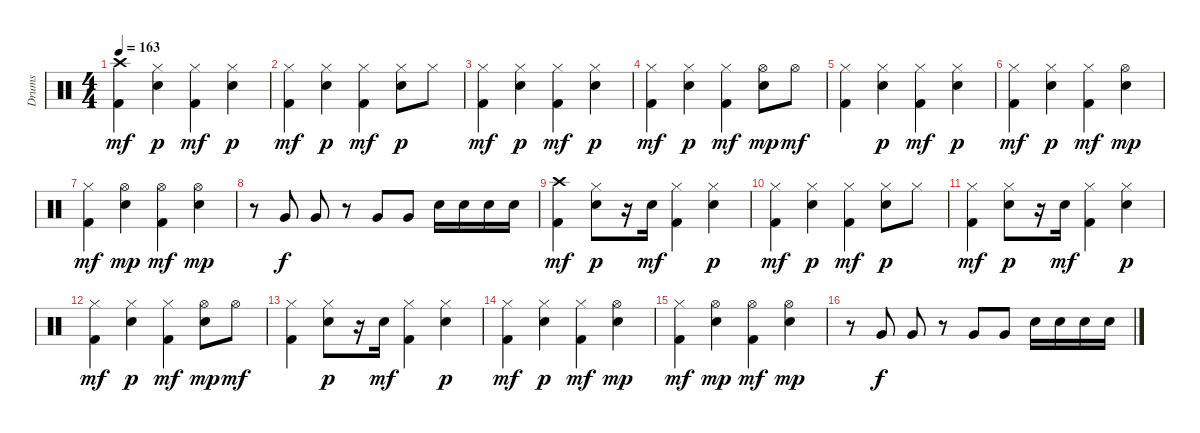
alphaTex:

\track ("Drums" "Drums") {instrument percussion}
\staff {score}
\articulation defaults
\ts (4 4)
\tempo 163
\clef neutral
\ks c
("Crash high (hit)" "Kick (hit) 2").4{dy mf} ("Hi-Hat (closed)" "Snare (hit) 2").4{dy p} ("Hi-Hat (closed)" "Kick (hit) 2").4{dy mf} ("Hi-Hat (closed)" "Snare (hit) 2").4{dy p} |
("Hi-Hat (closed)" "Kick (hit) 2").4{dy mf} ("Hi-Hat (closed)" "Snare (hit) 2").4{dy p} ("Hi-Hat (closed)" "Kick (hit) 2").4{dy mf} ("Hi-Hat (closed)" "Snare (hit) 2").8{dy p} "Hi-Hat (closed)".8 |
("Hi-Hat (closed)" "Kick (hit) 2").4{dy mf} ("Hi-Hat (closed)" "Snare (hit) 2").4{dy p} ("Hi-Hat (closed)" "Kick (hit) 2").4{dy mf} ("Hi-Hat (closed)" "Snare (hit) 2").4{dy p} |
("Hi-Hat (closed)" "Kick (hit) 2").4{dy mf} ("Hi-Hat (closed)" "Snare (hit) 2").4{dy p} ("Hi-Hat (closed)" "Kick (hit) 2").4{dy mf} ("Hi-Hat (open)" "Snare (hit) 2").8{dy mp} "Hi-Hat (open)".8{dy mf} |
("Hi-Hat (closed)" "Kick (hit) 2").4 ("Hi-Hat (closed)" "Snare (hit) 2").4{dy p} ("Hi-Hat (closed)" "Kick (hit) 2").4{dy mf} ("Hi-Hat (closed)" "Snare (hit) 2").4{dy p} |
("Hi-Hat (closed)" "Kick (hit) 2").4{dy mf} ("Hi-Hat (closed)" "Snare (hit) 2").4{dy p} ("Hi-Hat (closed)" "Kick (hit) 2").4{dy mf} ("Hi-Hat (open)" "Snare (hit) 2").4{dy mp} |
("Hi-Hat (closed)" "Kick (hit) 2").4{dy mf} ("Hi-Hat (open)" "Snare (hit) 2").4{dy mp} ("Hi-Hat (open)" "Kick (hit) 2").4{dy mf} ("Hi-Hat (open)" "Snare (hit) 2").4{dy mp} |
r.8 "Very Low Tom (hit)".8{dy f} "Very Low Tom (hit)".8 r.8 "Very Low Tom (hit)".8 "Very Low Tom (hit)".8 "Snare (hit) 2".16 "Snare (hit) 2".16 "Snare (hit) 2".16 "Snare (hit) 2".16 |
("Crash high (hit)" "Kick (hit) 2").4{dy mf} ("Hi-Hat (closed)" "Snare (hit) 2").8{dy p} r.16 "Snare (hit) 2".16{dy mf} ("Hi-Hat (closed)" "Kick (hit) 2").4 ("Hi-Hat (closed)" "Snare (hit) 2").4{dy p} |
("Hi-Hat (closed)" "Kick (hit) 2").4{dy mf} ("Hi-Hat (closed)" "Snare (hit) 2").4{dy p} ("Hi-Hat (closed)" "Kick (hit) 2").4{dy mf} ("Hi-Hat (closed)" "Snare (hit) 2").8{dy p} "Hi-Hat (closed)".8 |
("Hi-Hat (closed)" "Kick (hit) 2").4{dy mf} ("Hi-Hat (closed)" "Snare (hit) 2").8{dy p} r.16 "Snare (hit) 2".16{dy mf} ("Hi-Hat (closed)" "Kick (hit) 2").4 ("Hi-Hat (closed)" "Snare (hit) 2").4{dy p} |
("Hi-Hat (closed)" "Kick (hit) 2").4{dy mf} ("Hi-Hat (closed)" "Snare (hit) 2").4{dy p} ("Hi-Hat (closed)" "Kick (hit) 2").4{dy mf} ("Hi-Hat (open)" "Snare (hit) 2").8{dy mp} "Hi-Hat (open)".8{dy mf} |
("Hi-Hat (closed)" "Kick (hit) 2").4 ("Hi-Hat (closed)" "Snare (hit) 2").8{dy p} r.16 "Snare (hit) 2".16{dy mf} ("Hi-Hat (closed)" "Kick (hit) 2").4 ("Hi-Hat (closed)" "Snare (hit) 2").4{dy p} |
("Hi-Hat (closed)" "Kick (hit) 2").4{dy mf} ("Hi-Hat (closed)" "Snare (hit) 2").4{dy p} ("Hi-Hat (closed)" "Kick (hit) 2").4{dy mf} ("Hi-Hat (open)" "Snare (hit) 2").4{dy mp} |
("Hi-Hat (closed)" "Kick (hit) 2").4{dy mf} ("Hi-Hat (open)" "Snare (hit) 2").4{dy mp} ("Hi-Hat (open)" "Kick (hit) 2").4{dy mf} ("Hi-Hat (open)" "Snare (hit) 2").4{dy mp} |
r.8 "Very Low Tom (hit)".8{dy f} "Very Low Tom (hit)".8 r.8 "Very Low Tom (hit)".8 "Very Low Tom (hit)".8 "Snare (hit) 2".16 "Snare (hit) 2".16 "Snare (hit) 2".16 "Snare (hit) 2".16
